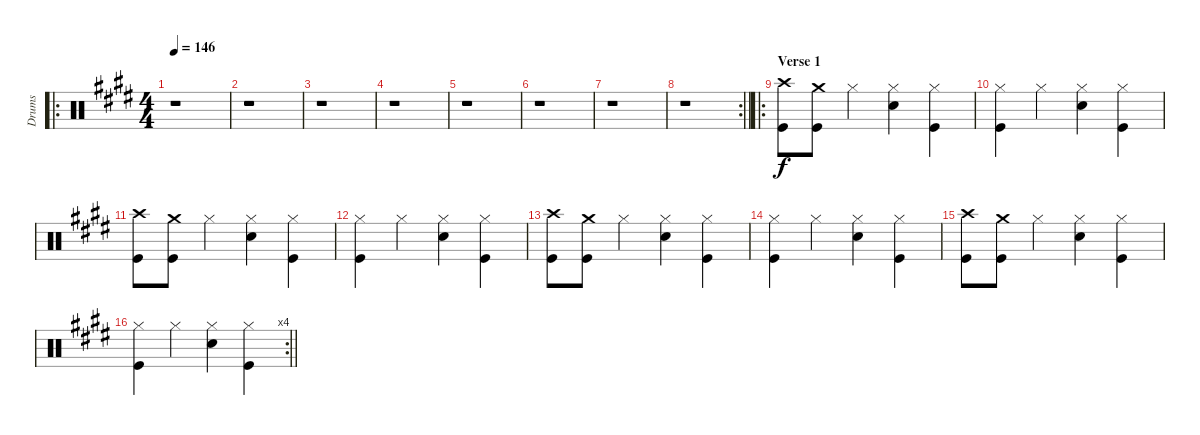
\track ("Drums" "Drums") {instrument percussion}
\staff {score}
\articulation defaults
\ro
\ts (4 4)
\tempo 146
\clef neutral
\ks e
r.1{dy f} |
r.1 |
r.1 |
r.1 |
r.1 |
r.1 |
r.1 |
\rc 2
\barLineRight lightlight
r.1 |
\ro
\section ("" "Verse 1")
("Crash high (hit)" "Kick (hit)").8 ("Crash medium (hit)" "Kick (hit)").8 "Hi-Hat (closed)".4 ("Hi-Hat (closed)" "Snare (hit) 2").4 ("Hi-Hat (closed)" "Kick (hit)").4 |
("Hi-Hat (closed)" "Kick (hit)").4 "Hi-Hat (closed)".4 ("Hi-Hat (closed)" "Snare (hit) 2").4 ("Hi-Hat (closed)" "Kick (hit)").4 |
("Crash high (hit)" "Kick (hit)").8 ("Crash medium (hit)" "Kick (hit)").8 "Hi-Hat (closed)".4 ("Hi-Hat (closed)" "Snare (hit) 2").4 ("Hi-Hat (closed)" "Kick (hit)").4 |
("Hi-Hat (closed)" "Kick (hit)").4 "Hi-Hat (closed)".4 ("Hi-Hat (closed)" "Snare (hit) 2").4 ("Hi-Hat (closed)" "Kick (hit)").4 |
("Crash high (hit)" "Kick (hit)").8 ("Crash medium (hit)" "Kick (hit)").8 "Hi-Hat (closed)".4 ("Hi-Hat (closed)" "Snare (hit) 2").4 ("Hi-Hat (closed)" "Kick (hit)").4 |
("Hi-Hat (closed)" "Kick (hit)").4 "Hi-Hat (closed)".4 ("Hi-Hat (closed)" "Snare (hit) 2").4 ("Hi-Hat (closed)" "Kick (hit)").4 |
("Crash high (hit)" "Kick (hit)").8 ("Crash medium (hit)" "Kick (hit)").8 "Hi-Hat (closed)".4 ("Hi-Hat (closed)" "Snare (hit) 2").4 ("Hi-Hat (closed)" "Kick (hit)").4 |
\rc 4
\barLineRight lightlight
("Hi-Hat (closed)" "Kick (hit)").4 "Hi-Hat (closed)".4 ("Hi-Hat (closed)" "Snare (hit) 2").4 ("Hi-Hat (closed)" "Kick (hit)").4
